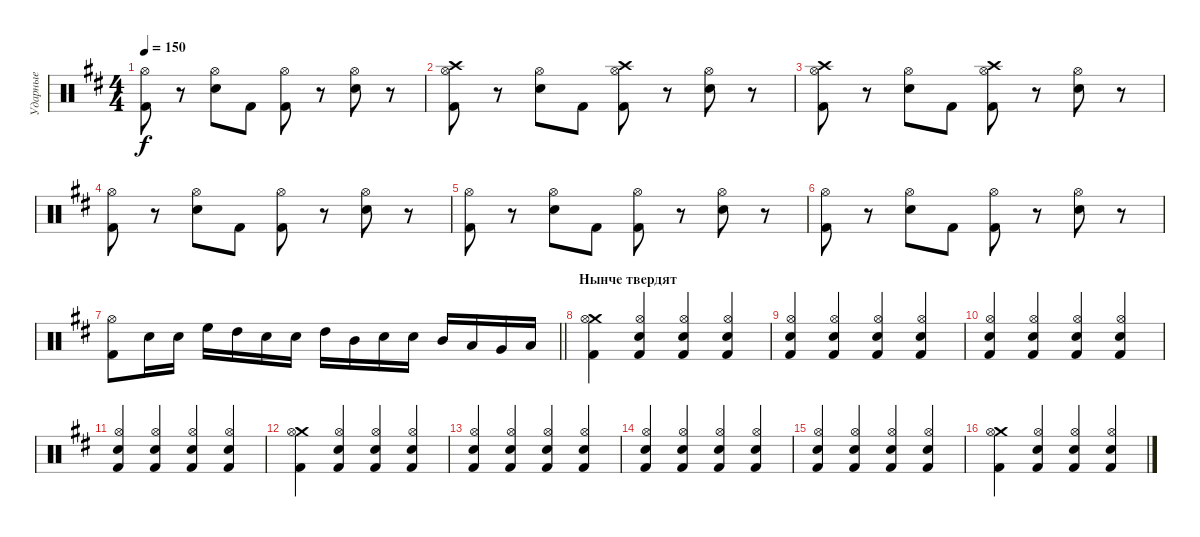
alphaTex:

\track ("Ударные" "Ударные") {instrument percussion}
\staff {score}
\articulation defaults
\ts (4 4)
\tempo 150
\clef neutral
\ks bminor
("Kick (hit) 2" "Hi-Hat (open)").8{dy f} r.8 ("Electric Snare (hit)" "Hi-Hat (open)").8 "Kick (hit) 2".8 ("Kick (hit) 2" "Hi-Hat (open)").8 r.8 ("Electric Snare (hit)" "Hi-Hat (open)").8 r.8 |
("Crash high (hit)" "Kick (hit) 2" "Hi-Hat (open)").8 r.8 ("Electric Snare (hit)" "Hi-Hat (open)").8 "Kick (hit) 2".8 ("Crash high (hit)" "Kick (hit) 2" "Hi-Hat (open)").8 r.8 ("Electric Snare (hit)" "Hi-Hat (open)").8 r.8 |
("Crash high (hit)" "Kick (hit) 2" "Hi-Hat (open)").8 r.8 ("Electric Snare (hit)" "Hi-Hat (open)").8 "Kick (hit) 2".8 ("Crash high (hit)" "Kick (hit) 2" "Hi-Hat (open)").8 r.8 ("Electric Snare (hit)" "Hi-Hat (open)").8 r.8 |
("Kick (hit) 2" "Hi-Hat (open)").8 r.8 ("Electric Snare (hit)" "Hi-Hat (open)").8 "Kick (hit) 2".8 ("Kick (hit) 2" "Hi-Hat (open)").8 r.8 ("Electric Snare (hit)" "Hi-Hat (open)").8 r.8 |
("Kick (hit) 2" "Hi-Hat (open)").8 r.8 ("Electric Snare (hit)" "Hi-Hat (open)").8 "Kick (hit) 2".8 ("Kick (hit) 2" "Hi-Hat (open)").8 r.8 ("Electric Snare (hit)" "Hi-Hat (open)").8 r.8 |
("Kick (hit) 2" "Hi-Hat (open)").8 r.8 ("Electric Snare (hit)" "Hi-Hat (open)").8 "Kick (hit) 2".8 ("Kick (hit) 2" "Hi-Hat (open)").8 r.8 ("Electric Snare (hit)" "Hi-Hat (open)").8 r.8 |
\barLineRight lightlight
("Hi-Hat (open)" "Kick (hit) 2").8 "Electric Snare (hit)".16 "Electric Snare (hit)".16 "High Floor Tom (hit)".16 "High Tom (hit)".16 "Electric Snare (hit)".16 "Electric Snare (hit)".16 "High Tom (hit)".16 "Mid Tom (hit)".16 "Electric Snare (hit)".16 "Electric Snare (hit)".16 "Mid Tom (hit)".16 "Low Tom (hit)".16 "Very Low Tom (hit)".16 "Low Floor Tom (hit)".16 |
\section ("" "Нынче твердят")
("Crash medium (hit)" "Kick (hit) 2" "Hi-Hat (open)").4 ("Electric Snare (hit)" "Hi-Hat (open)" "Kick (hit) 2").4 ("Electric Snare (hit)" "Hi-Hat (open)" "Kick (hit) 2").4 ("Electric Snare (hit)" "Hi-Hat (open)" "Kick (hit) 2").4 |
("Electric Snare (hit)" "Hi-Hat (open)" "Kick (hit) 2").4 ("Electric Snare (hit)" "Hi-Hat (open)" "Kick (hit) 2").4 ("Electric Snare (hit)" "Hi-Hat (open)" "Kick (hit) 2").4 ("Electric Snare (hit)" "Hi-Hat (open)" "Kick (hit) 2").4 |
("Electric Snare (hit)" "Hi-Hat (open)" "Kick (hit) 2").4 ("Electric Snare (hit)" "Hi-Hat (open)" "Kick (hit) 2").4 ("Electric Snare (hit)" "Hi-Hat (open)" "Kick (hit) 2").4 ("Electric Snare (hit)" "Hi-Hat (open)" "Kick (hit) 2").4 |
("Electric Snare (hit)" "Hi-Hat (open)" "Kick (hit) 2").4 ("Electric Snare (hit)" "Hi-Hat (open)" "Kick (hit) 2").4 ("Electric Snare (hit)" "Hi-Hat (open)" "Kick (hit) 2").4 ("Electric Snare (hit)" "Hi-Hat (open)" "Kick (hit) 2").4 |
("Crash medium (hit)" "Kick (hit) 2" "Hi-Hat (open)").4 ("Electric Snare (hit)" "Hi-Hat (open)" "Kick (hit) 2").4 ("Electric Snare (hit)" "Hi-Hat (open)" "Kick (hit) 2").4 ("Electric Snare (hit)" "Hi-Hat (open)" "Kick (hit) 2").4 |
("Electric Snare (hit)" "Hi-Hat (open)" "Kick (hit) 2").4 ("Electric Snare (hit)" "Hi-Hat (open)" "Kick (hit) 2").4 ("Electric Snare (hit)" "Hi-Hat (open)" "Kick (hit) 2").4 ("Electric Snare (hit)" "Hi-Hat (open)" "Kick (hit) 2").4 |
("Electric Snare (hit)" "Hi-Hat (open)" "Kick (hit) 2").4 ("Electric Snare (hit)" "Hi-Hat (open)" "Kick (hit) 2").4 ("Electric Snare (hit)" "Hi-Hat (open)" "Kick (hit) 2").4 ("Electric Snare (hit)" "Hi-Hat (open)" "Kick (hit) 2").4 |
("Electric Snare (hit)" "Hi-Hat (open)" "Kick (hit) 2").4 ("Electric Snare (hit)" "Hi-Hat (open)" "Kick (hit) 2").4 ("Electric Snare (hit)" "Hi-Hat (open)" "Kick (hit) 2").4 ("Electric Snare (hit)" "Hi-Hat (open)" "Kick (hit) 2").4 |
("Crash medium (hit)" "Kick (hit) 2" "Hi-Hat (open)").4 ("Electric Snare (hit)" "Hi-Hat (open)" "Kick (hit) 2").4 ("Electric Snare (hit)" "Hi-Hat (open)" "Kick (hit) 2").4 ("Electric Snare (hit)" "Hi-Hat (open)" "Kick (hit) 2").4
